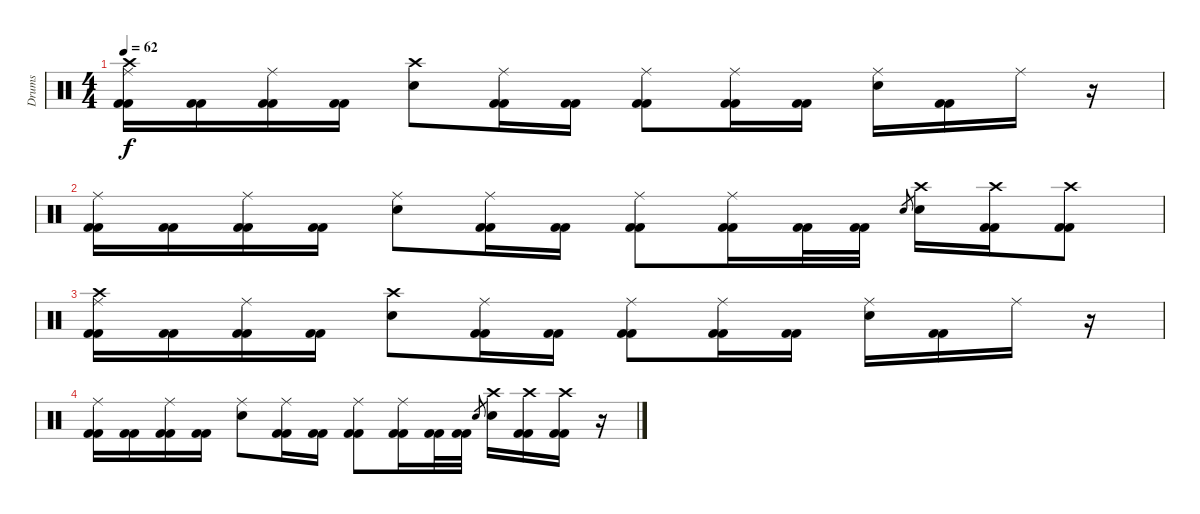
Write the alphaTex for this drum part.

\track ("Drums" "Drums") {instrument percussion}
\staff {score}
\articulation defaults
\ts (4 4)
\tempo 62
\clef neutral
\ks c
("Kick (hit) 2" "Kick (hit) 2" "Ride (middle)" "Crash high (hit)").16{dy f} ("Kick (hit) 2" "Kick (hit) 2").16 ("Kick (hit) 2" "Kick (hit) 2" "Ride (middle)").16 ("Kick (hit) 2" "Kick (hit) 2").16 ("Electric Snare (hit)" "Crash high (hit)").8 ("Kick (hit) 2" "Kick (hit) 2" "Ride (middle)").16 ("Kick (hit) 2" "Kick (hit) 2").16 ("Kick (hit) 2" "Kick (hit) 2" "Ride (middle)").8 ("Kick (hit) 2" "Kick (hit) 2" "Ride (middle)").16 ("Kick (hit) 2" "Kick (hit) 2").16 ("Electric Snare (hit)" "Ride (middle)").16 ("Kick (hit) 2" "Kick (hit) 2").16 "Ride (middle)".16 r.16 |
("Kick (hit) 2" "Kick (hit) 2" "Ride (middle)").16 ("Kick (hit) 2" "Kick (hit) 2").16 ("Kick (hit) 2" "Kick (hit) 2" "Ride (middle)").16 ("Kick (hit) 2" "Kick (hit) 2").16 ("Electric Snare (hit)" "Ride (middle)").8 ("Kick (hit) 2" "Kick (hit) 2" "Ride (middle)").16 ("Kick (hit) 2" "Kick (hit) 2").16 ("Kick (hit) 2" "Kick (hit) 2" "Ride (middle)").8 ("Kick (hit) 2" "Kick (hit) 2" "Ride (middle)").16 ("Kick (hit) 2" "Kick (hit) 2").32 ("Kick (hit) 2" "Kick (hit) 2").32 "Electric Snare (hit)".8{gr} ("Electric Snare (hit)" "Crash high (hit)").16 ("Kick (hit) 2" "Kick (hit) 2" "Crash high (hit)").16 ("Kick (hit) 2" "Kick (hit) 2" "Crash high (hit)").8 |
("Kick (hit) 2" "Kick (hit) 2" "Ride (middle)" "Crash high (hit)").16 ("Kick (hit) 2" "Kick (hit) 2").16 ("Kick (hit) 2" "Kick (hit) 2" "Ride (middle)").16 ("Kick (hit) 2" "Kick (hit) 2").16 ("Electric Snare (hit)" "Crash high (hit)").8 ("Kick (hit) 2" "Kick (hit) 2" "Ride (middle)").16 ("Kick (hit) 2" "Kick (hit) 2").16 ("Kick (hit) 2" "Kick (hit) 2" "Ride (middle)").8 ("Kick (hit) 2" "Kick (hit) 2" "Ride (middle)").16 ("Kick (hit) 2" "Kick (hit) 2").16 ("Electric Snare (hit)" "Ride (middle)").16 ("Kick (hit) 2" "Kick (hit) 2").16 "Ride (middle)".16 r.16 |
("Kick (hit) 2" "Kick (hit) 2" "Ride (middle)").16 ("Kick (hit) 2" "Kick (hit) 2").16 ("Kick (hit) 2" "Kick (hit) 2" "Ride (middle)").16 ("Kick (hit) 2" "Kick (hit) 2").16 ("Electric Snare (hit)" "Ride (middle)").8 ("Kick (hit) 2" "Kick (hit) 2" "Ride (middle)").16 ("Kick (hit) 2" "Kick (hit) 2").16 ("Kick (hit) 2" "Kick (hit) 2" "Ride (middle)").8 ("Kick (hit) 2" "Kick (hit) 2" "Ride (middle)").16 ("Kick (hit) 2" "Kick (hit) 2").32 ("Kick (hit) 2" "Kick (hit) 2").32 "Electric Snare (hit)".8{gr} ("Electric Snare (hit)" "Crash high (hit)").16 ("Kick (hit) 2" "Kick (hit) 2" "Crash high (hit)").16 ("Kick (hit) 2" "Kick (hit) 2" "Crash high (hit)").16 r.16
